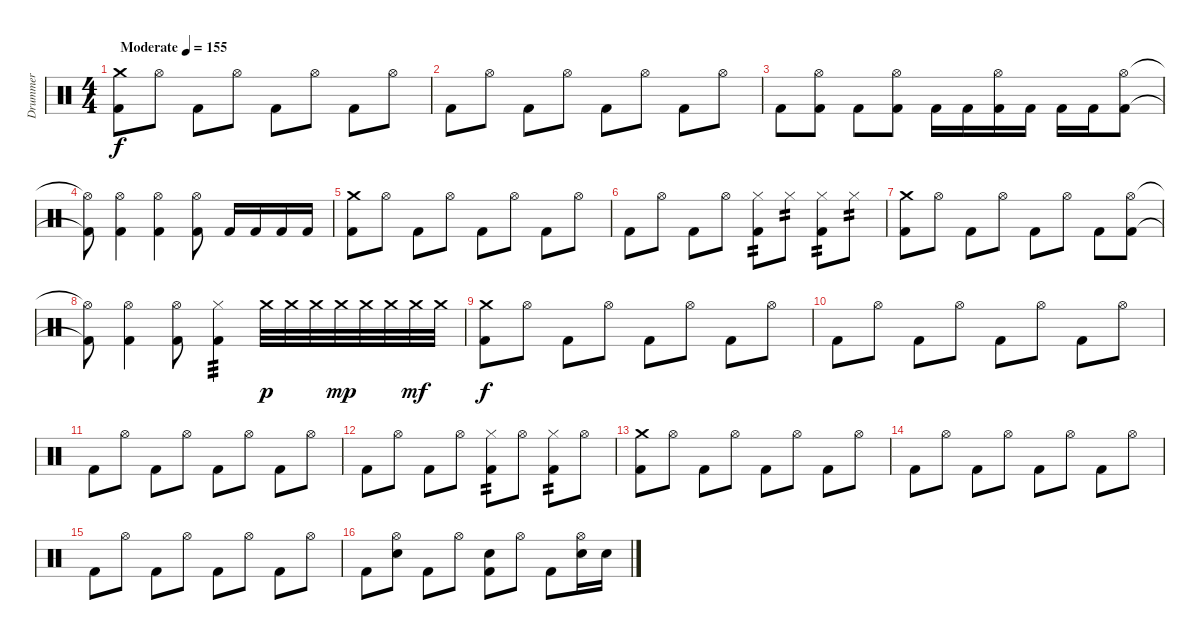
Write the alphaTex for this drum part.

\track ("Drummer" "Drummer") {instrument percussion}
\staff {score}
\articulation defaults
\ts (4 4)
\tempo (155 "Moderate")
\clef neutral
\ks c
("Crash medium (hit)" "Kick (hit) 2").8{dy f} "Hi-Hat (open)".8 "Kick (hit) 2".8 "Hi-Hat (open)".8 "Kick (hit) 2".8 "Hi-Hat (open)".8 "Kick (hit) 2".8 "Hi-Hat (open)".8 |
"Kick (hit) 2".8 "Hi-Hat (open)".8 "Kick (hit) 2".8 "Hi-Hat (open)".8 "Kick (hit) 2".8 "Hi-Hat (open)".8 "Kick (hit) 2".8 "Hi-Hat (open)".8 |
"Kick (hit) 2".8 ("Hi-Hat (open)" "Kick (hit) 2").8 "Kick (hit) 2".8 ("Hi-Hat (open)" "Kick (hit) 2").8 "Kick (hit) 2".16 "Kick (hit) 2".16 ("Hi-Hat (open)" "Kick (hit) 2").16 "Kick (hit) 2".16 "Kick (hit) 2".16 "Kick (hit) 2".16 ("Hi-Hat (open)" "Kick (hit) 2").8 |
("Hi-Hat (open)"{t} "Kick (hit) 2"{t}).8 ("Hi-Hat (open)" "Kick (hit) 2").4 ("Hi-Hat (open)" "Kick (hit) 2").4 ("Hi-Hat (open)" "Kick (hit) 2").8 "Kick (hit) 2".16 "Kick (hit) 2".16 "Kick (hit) 2".16 "Kick (hit) 2".16 |
("Crash medium (hit)" "Kick (hit) 2").8 "Hi-Hat (open)".8 "Kick (hit) 2".8 "Hi-Hat (open)".8 "Kick (hit) 2".8 "Hi-Hat (open)".8 "Kick (hit) 2".8 "Hi-Hat (open)".8 |
"Kick (hit) 2".8 "Hi-Hat (open)".8 "Kick (hit) 2".8 "Hi-Hat (open)".8 ("Hi-Hat (closed)" "Kick (hit) 2").8{tp 2} "Hi-Hat (closed)".8{tp 2} ("Hi-Hat (closed)" "Kick (hit) 2").8{tp 2} "Hi-Hat (closed)".8{tp 2} |
("Crash medium (hit)" "Kick (hit) 2").8 "Hi-Hat (open)".8 "Kick (hit) 2".8 "Hi-Hat (open)".8 "Kick (hit) 2".8 "Hi-Hat (open)".8 "Kick (hit) 2".8 ("Hi-Hat (open)" "Kick (hit) 2").8 |
("Hi-Hat (open)"{t} "Kick (hit) 2"{t}).8 ("Hi-Hat (open)" "Kick (hit) 2").4 ("Hi-Hat (open)" "Kick (hit) 2").8 ("Hi-Hat (closed)" "Kick (hit) 2").4{tp 3} "Crash medium (hit)".32{dy p} "Crash medium (hit)".32 "Crash medium (hit)".32 "Crash medium (hit)".32{dy mp} "Crash medium (hit)".32 "Crash medium (hit)".32 "Crash medium (hit)".32{dy mf} "Crash medium (hit)".32 |
("Crash medium (hit)" "Kick (hit) 2").8{dy f} "Hi-Hat (open)".8 "Kick (hit) 2".8 "Hi-Hat (open)".8 "Kick (hit) 2".8 "Hi-Hat (open)".8 "Kick (hit) 2".8 "Hi-Hat (open)".8 |
"Kick (hit) 2".8 "Hi-Hat (open)".8 "Kick (hit) 2".8 "Hi-Hat (open)".8 "Kick (hit) 2".8 "Hi-Hat (open)".8 "Kick (hit) 2".8 "Hi-Hat (open)".8 |
"Kick (hit) 2".8 "Hi-Hat (open)".8 "Kick (hit) 2".8 "Hi-Hat (open)".8 "Kick (hit) 2".8 "Hi-Hat (open)".8 "Kick (hit) 2".8 "Hi-Hat (open)".8 |
"Kick (hit) 2".8 "Hi-Hat (open)".8 "Kick (hit) 2".8 "Hi-Hat (open)".8 ("Hi-Hat (closed)" "Kick (hit) 2").8{tp 2} "Hi-Hat (open)".8 ("Hi-Hat (closed)" "Kick (hit) 2").8{tp 2} "Hi-Hat (open)".8 |
("Crash medium (hit)" "Kick (hit) 2").8 "Hi-Hat (open)".8 "Kick (hit) 2".8 "Hi-Hat (open)".8 "Kick (hit) 2".8 "Hi-Hat (open)".8 "Kick (hit) 2".8 "Hi-Hat (open)".8 |
"Kick (hit) 2".8 "Hi-Hat (open)".8 "Kick (hit) 2".8 "Hi-Hat (open)".8 "Kick (hit) 2".8 "Hi-Hat (open)".8 "Kick (hit) 2".8 "Hi-Hat (open)".8 |
"Kick (hit) 2".8 "Hi-Hat (open)".8 "Kick (hit) 2".8 "Hi-Hat (open)".8 "Kick (hit) 2".8 "Hi-Hat (open)".8 "Kick (hit) 2".8 "Hi-Hat (open)".8 |
"Kick (hit) 2".8 ("Hi-Hat (open)" "Electric Snare (hit)").8 "Kick (hit) 2".8 "Hi-Hat (open)".8 ("Electric Snare (hit)" "Kick (hit) 2").8 "Hi-Hat (open)".8 "Kick (hit) 2".8 ("Hi-Hat (open)" "Electric Snare (hit)").16 "Electric Snare (hit)".16
